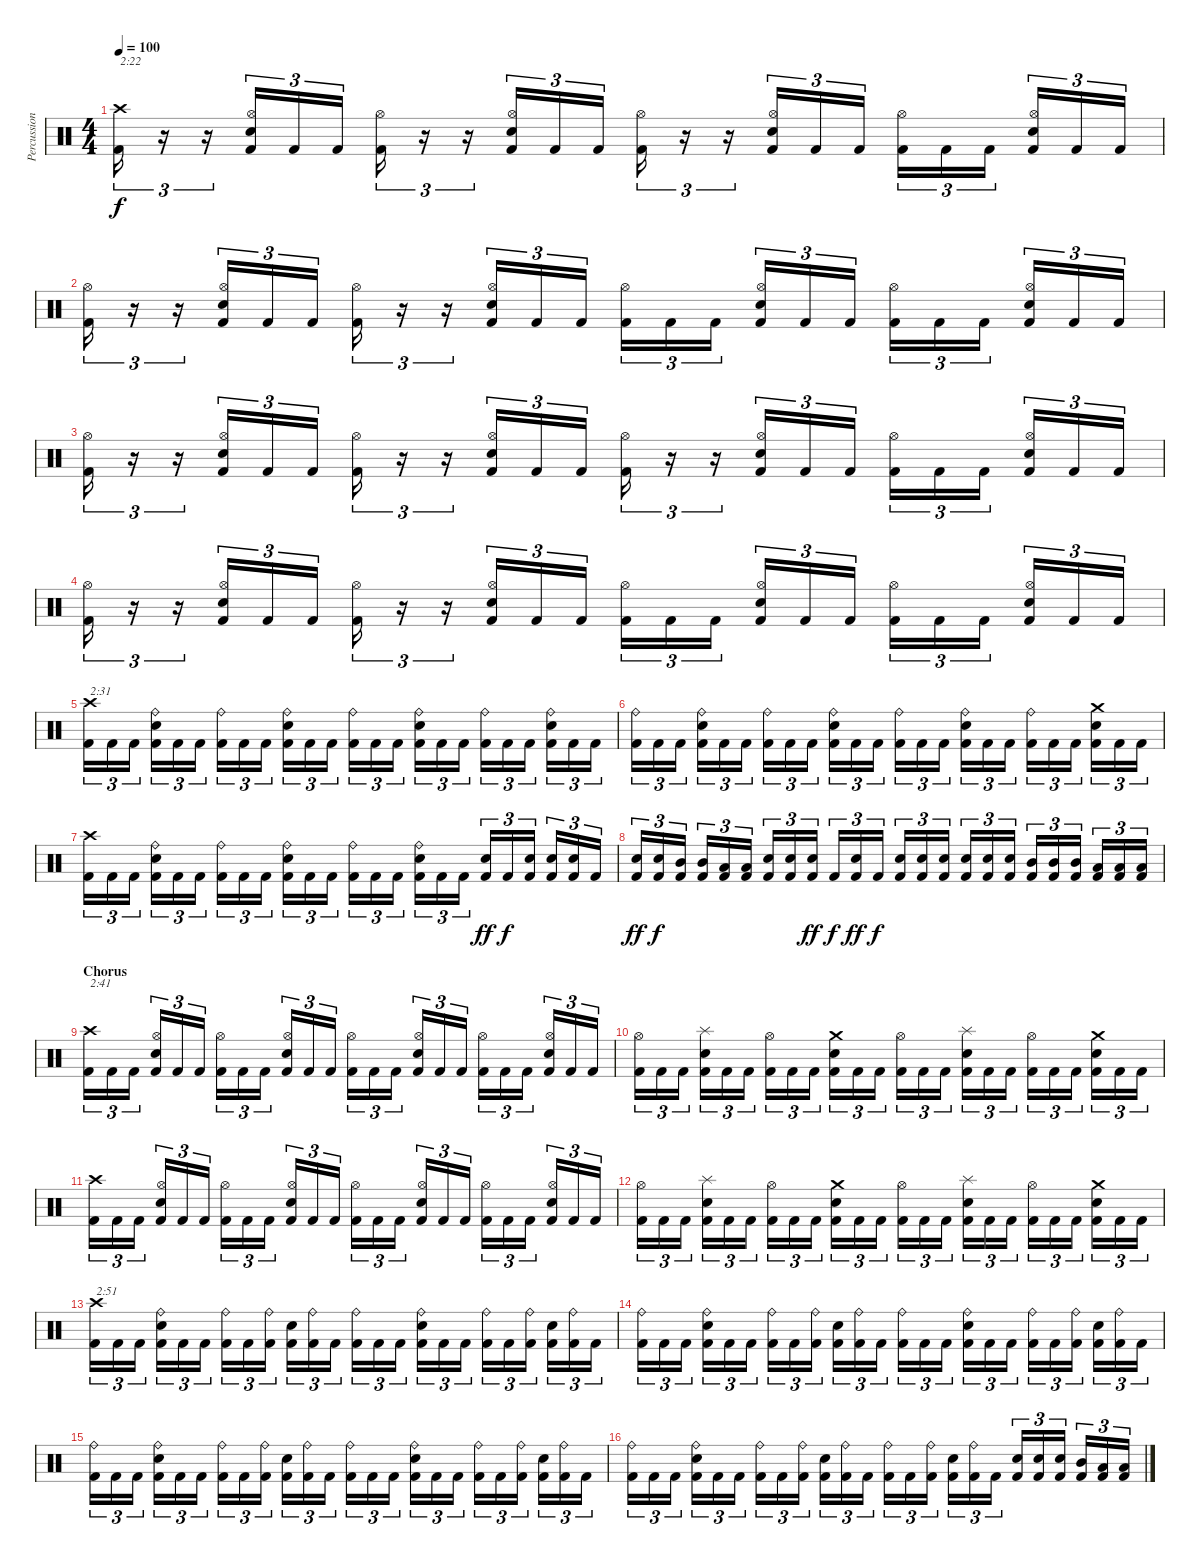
\track ("Percussion" "Percussion") {instrument percussion}
\staff {score}
\articulation defaults
\ts (4 4)
\tempo 100
\clef neutral
\ks c
("Crash high (hit)" "Kick (hit) 2").16{tu (3 2) txt "2:22" dy f} r.16{tu (3 2)} r.16{tu (3 2)} ("Hi-Hat (open)" "Snare (hit) 2" "Kick (hit) 2").16{tu (3 2)} "Kick (hit) 2".16{tu (3 2)} "Kick (hit) 2".16{tu (3 2)} ("Hi-Hat (open)" "Kick (hit) 2").16{tu (3 2)} r.16{tu (3 2)} r.16{tu (3 2)} ("Hi-Hat (open)" "Snare (hit) 2" "Kick (hit) 2").16{tu (3 2)} "Kick (hit) 2".16{tu (3 2)} "Kick (hit) 2".16{tu (3 2)} ("Hi-Hat (open)" "Kick (hit) 2").16{tu (3 2)} r.16{tu (3 2)} r.16{tu (3 2)} ("Hi-Hat (open)" "Snare (hit) 2" "Kick (hit) 2").16{tu (3 2)} "Kick (hit) 2".16{tu (3 2)} "Kick (hit) 2".16{tu (3 2)} ("Hi-Hat (open)" "Kick (hit) 2").16{tu (3 2)} "Kick (hit) 2".16{tu (3 2)} "Kick (hit) 2".16{tu (3 2)} ("Hi-Hat (open)" "Snare (hit) 2" "Kick (hit) 2").16{tu (3 2)} "Kick (hit) 2".16{tu (3 2)} "Kick (hit) 2".16{tu (3 2)} |
("Hi-Hat (open)" "Kick (hit) 2").16{tu (3 2)} r.16{tu (3 2)} r.16{tu (3 2)} ("Hi-Hat (open)" "Snare (hit) 2" "Kick (hit) 2").16{tu (3 2)} "Kick (hit) 2".16{tu (3 2)} "Kick (hit) 2".16{tu (3 2)} ("Hi-Hat (open)" "Kick (hit) 2").16{tu (3 2)} r.16{tu (3 2)} r.16{tu (3 2)} ("Hi-Hat (open)" "Snare (hit) 2" "Kick (hit) 2").16{tu (3 2)} "Kick (hit) 2".16{tu (3 2)} "Kick (hit) 2".16{tu (3 2)} ("Hi-Hat (open)" "Kick (hit) 2").16{tu (3 2)} "Kick (hit) 2".16{tu (3 2)} "Kick (hit) 2".16{tu (3 2)} ("Hi-Hat (open)" "Snare (hit) 2" "Kick (hit) 2").16{tu (3 2)} "Kick (hit) 2".16{tu (3 2)} "Kick (hit) 2".16{tu (3 2)} ("Hi-Hat (open)" "Kick (hit) 2").16{tu (3 2)} "Kick (hit) 2".16{tu (3 2)} "Kick (hit) 2".16{tu (3 2)} ("Hi-Hat (open)" "Snare (hit) 2" "Kick (hit) 2").16{tu (3 2)} "Kick (hit) 2".16{tu (3 2)} "Kick (hit) 2".16{tu (3 2)} |
("Hi-Hat (open)" "Kick (hit) 2").16{tu (3 2)} r.16{tu (3 2)} r.16{tu (3 2)} ("Hi-Hat (open)" "Snare (hit) 2" "Kick (hit) 2").16{tu (3 2)} "Kick (hit) 2".16{tu (3 2)} "Kick (hit) 2".16{tu (3 2)} ("Hi-Hat (open)" "Kick (hit) 2").16{tu (3 2)} r.16{tu (3 2)} r.16{tu (3 2)} ("Hi-Hat (open)" "Snare (hit) 2" "Kick (hit) 2").16{tu (3 2)} "Kick (hit) 2".16{tu (3 2)} "Kick (hit) 2".16{tu (3 2)} ("Hi-Hat (open)" "Kick (hit) 2").16{tu (3 2)} r.16{tu (3 2)} r.16{tu (3 2)} ("Hi-Hat (open)" "Snare (hit) 2" "Kick (hit) 2").16{tu (3 2)} "Kick (hit) 2".16{tu (3 2)} "Kick (hit) 2".16{tu (3 2)} ("Hi-Hat (open)" "Kick (hit) 2").16{tu (3 2)} "Kick (hit) 2".16{tu (3 2)} "Kick (hit) 2".16{tu (3 2)} ("Hi-Hat (open)" "Snare (hit) 2" "Kick (hit) 2").16{tu (3 2)} "Kick (hit) 2".16{tu (3 2)} "Kick (hit) 2".16{tu (3 2)} |
("Hi-Hat (open)" "Kick (hit) 2").16{tu (3 2)} r.16{tu (3 2)} r.16{tu (3 2)} ("Hi-Hat (open)" "Snare (hit) 2" "Kick (hit) 2").16{tu (3 2)} "Kick (hit) 2".16{tu (3 2)} "Kick (hit) 2".16{tu (3 2)} ("Hi-Hat (open)" "Kick (hit) 2").16{tu (3 2)} r.16{tu (3 2)} r.16{tu (3 2)} ("Hi-Hat (open)" "Snare (hit) 2" "Kick (hit) 2").16{tu (3 2)} "Kick (hit) 2".16{tu (3 2)} "Kick (hit) 2".16{tu (3 2)} ("Hi-Hat (open)" "Kick (hit) 2").16{tu (3 2)} "Kick (hit) 2".16{tu (3 2)} "Kick (hit) 2".16{tu (3 2)} ("Hi-Hat (open)" "Snare (hit) 2" "Kick (hit) 2").16{tu (3 2)} "Kick (hit) 2".16{tu (3 2)} "Kick (hit) 2".16{tu (3 2)} ("Hi-Hat (open)" "Kick (hit) 2").16{tu (3 2)} "Kick (hit) 2".16{tu (3 2)} "Kick (hit) 2".16{tu (3 2)} ("Hi-Hat (open)" "Snare (hit) 2" "Kick (hit) 2").16{tu (3 2)} "Kick (hit) 2".16{tu (3 2)} "Kick (hit) 2".16{tu (3 2)} |
("Crash high (hit)" "Kick (hit) 2").16{tu (3 2) txt "2:31"} "Kick (hit) 2".16{tu (3 2)} "Kick (hit) 2".16{tu (3 2)} ("Ride (bell)" "Snare (hit) 2" "Kick (hit) 2").16{tu (3 2)} "Kick (hit) 2".16{tu (3 2)} "Kick (hit) 2".16{tu (3 2)} ("Ride (bell)" "Kick (hit) 2").16{tu (3 2)} "Kick (hit) 2".16{tu (3 2)} "Kick (hit) 2".16{tu (3 2)} ("Ride (bell)" "Snare (hit) 2" "Kick (hit) 2").16{tu (3 2)} "Kick (hit) 2".16{tu (3 2)} "Kick (hit) 2".16{tu (3 2)} ("Ride (bell)" "Kick (hit) 2").16{tu (3 2)} "Kick (hit) 2".16{tu (3 2)} "Kick (hit) 2".16{tu (3 2)} ("Ride (bell)" "Snare (hit) 2" "Kick (hit) 2").16{tu (3 2)} "Kick (hit) 2".16{tu (3 2)} "Kick (hit) 2".16{tu (3 2)} ("Ride (bell)" "Kick (hit) 2").16{tu (3 2)} "Kick (hit) 2".16{tu (3 2)} "Kick (hit) 2".16{tu (3 2)} ("Ride (bell)" "Snare (hit) 2" "Kick (hit) 2").16{tu (3 2)} "Kick (hit) 2".16{tu (3 2)} "Kick (hit) 2".16{tu (3 2)} |
("Ride (bell)" "Kick (hit) 2").16{tu (3 2)} "Kick (hit) 2".16{tu (3 2)} "Kick (hit) 2".16{tu (3 2)} ("Ride (bell)" "Snare (hit) 2" "Kick (hit) 2").16{tu (3 2)} "Kick (hit) 2".16{tu (3 2)} "Kick (hit) 2".16{tu (3 2)} ("Ride (bell)" "Kick (hit) 2").16{tu (3 2)} "Kick (hit) 2".16{tu (3 2)} "Kick (hit) 2".16{tu (3 2)} ("Ride (bell)" "Snare (hit) 2" "Kick (hit) 2").16{tu (3 2)} "Kick (hit) 2".16{tu (3 2)} "Kick (hit) 2".16{tu (3 2)} ("Ride (bell)" "Kick (hit) 2").16{tu (3 2)} "Kick (hit) 2".16{tu (3 2)} "Kick (hit) 2".16{tu (3 2)} ("Ride (bell)" "Snare (hit) 2" "Kick (hit) 2").16{tu (3 2)} "Kick (hit) 2".16{tu (3 2)} "Kick (hit) 2".16{tu (3 2)} ("Ride (bell)" "Kick (hit) 2").16{tu (3 2)} "Kick (hit) 2".16{tu (3 2)} "Kick (hit) 2".16{tu (3 2)} ("Crash medium (hit)" "Snare (hit) 2" "Kick (hit) 2").16{tu (3 2)} "Kick (hit) 2".16{tu (3 2)} "Kick (hit) 2".16{tu (3 2)} |
("Crash high (hit)" "Kick (hit) 2").16{tu (3 2)} "Kick (hit) 2".16{tu (3 2)} "Kick (hit) 2".16{tu (3 2)} ("Ride (bell)" "Snare (hit) 2" "Kick (hit) 2").16{tu (3 2)} "Kick (hit) 2".16{tu (3 2)} "Kick (hit) 2".16{tu (3 2)} ("Ride (bell)" "Kick (hit) 2").16{tu (3 2)} "Kick (hit) 2".16{tu (3 2)} "Kick (hit) 2".16{tu (3 2)} ("Ride (bell)" "Snare (hit) 2" "Kick (hit) 2").16{tu (3 2)} "Kick (hit) 2".16{tu (3 2)} "Kick (hit) 2".16{tu (3 2)} ("Ride (bell)" "Kick (hit) 2").16{tu (3 2)} "Kick (hit) 2".16{tu (3 2)} "Kick (hit) 2".16{tu (3 2)} ("Ride (bell)" "Snare (hit) 2" "Kick (hit) 2").16{tu (3 2)} "Kick (hit) 2".16{tu (3 2)} "Kick (hit) 2".16{tu (3 2)} ("Snare (hit) 2" "Kick (hit) 2").16{tu (3 2) dy ff} "Kick (hit) 2".16{tu (3 2) dy f} ("Snare (hit) 2" "Kick (hit) 2").16{tu (3 2)} ("Snare (hit) 2" "Kick (hit) 2").16{tu (3 2)} ("Snare (hit) 2" "Kick (hit) 2").16{tu (3 2)} "Kick (hit) 2".16{tu (3 2)} |
("Snare (hit) 2" "Kick (hit) 2").16{tu (3 2) dy ff} ("Snare (hit) 2" "Kick (hit) 2").16{tu (3 2) dy f} ("Mid Tom (hit)" "Kick (hit) 2").16{tu (3 2)} ("Mid Tom (hit)" "Kick (hit) 2").16{tu (3 2)} ("Low Tom (hit)" "Kick (hit) 2").16{tu (3 2)} ("Low Tom (hit)" "Kick (hit) 2").16{tu (3 2)} ("Snare (hit) 2" "Kick (hit) 2").16{tu (3 2)} ("Snare (hit) 2" "Kick (hit) 2").16{tu (3 2)} ("Snare (hit) 2" "Kick (hit) 2").16{tu (3 2) dy ff} "Kick (hit) 2".16{tu (3 2) dy f} ("Snare (hit) 2" "Kick (hit) 2").16{tu (3 2) dy ff} "Kick (hit) 2".16{tu (3 2) dy f} ("Snare (hit) 2" "Kick (hit) 2").16{tu (3 2)} ("Snare (hit) 2" "Kick (hit) 2").16{tu (3 2)} ("Snare (hit) 2" "Kick (hit) 2").16{tu (3 2)} ("Snare (hit) 2" "Kick (hit) 2").16{tu (3 2)} ("Snare (hit) 2" "Kick (hit) 2").16{tu (3 2)} ("Snare (hit) 2" "Kick (hit) 2").16{tu (3 2)} ("Mid Tom (hit)" "Kick (hit) 2").16{tu (3 2)} ("Mid Tom (hit)" "Kick (hit) 2").16{tu (3 2)} ("Mid Tom (hit)" "Kick (hit) 2").16{tu (3 2)} ("Low Tom (hit)" "Kick (hit) 2").16{tu (3 2)} ("Low Tom (hit)" "Kick (hit) 2").16{tu (3 2)} ("Low Tom (hit)" "Kick (hit) 2").16{tu (3 2)} |
\section ("" "Chorus")
("Crash high (hit)" "Kick (hit) 2").16{tu (3 2) txt "2:41"} "Kick (hit) 2".16{tu (3 2)} "Kick (hit) 2".16{tu (3 2)} ("Hi-Hat (open)" "Snare (hit) 2" "Kick (hit) 2").16{tu (3 2)} "Kick (hit) 2".16{tu (3 2)} "Kick (hit) 2".16{tu (3 2)} ("Hi-Hat (open)" "Kick (hit) 2").16{tu (3 2)} "Kick (hit) 2".16{tu (3 2)} "Kick (hit) 2".16{tu (3 2)} ("Hi-Hat (open)" "Snare (hit) 2" "Kick (hit) 2").16{tu (3 2)} "Kick (hit) 2".16{tu (3 2)} "Kick (hit) 2".16{tu (3 2)} ("Hi-Hat (open)" "Kick (hit) 2").16{tu (3 2)} "Kick (hit) 2".16{tu (3 2)} "Kick (hit) 2".16{tu (3 2)} ("Hi-Hat (open)" "Snare (hit) 2" "Kick (hit) 2").16{tu (3 2)} "Kick (hit) 2".16{tu (3 2)} "Kick (hit) 2".16{tu (3 2)} ("Hi-Hat (open)" "Kick (hit) 2").16{tu (3 2)} "Kick (hit) 2".16{tu (3 2)} "Kick (hit) 2".16{tu (3 2)} ("Hi-Hat (open)" "Snare (hit) 2" "Kick (hit) 2").16{tu (3 2)} "Kick (hit) 2".16{tu (3 2)} "Kick (hit) 2".16{tu (3 2)} |
("Hi-Hat (open)" "Kick (hit) 2").16{tu (3 2)} "Kick (hit) 2".16{tu (3 2)} "Kick (hit) 2".16{tu (3 2)} ("Splash (hit)" "Snare (hit) 2" "Kick (hit) 2").16{tu (3 2)} "Kick (hit) 2".16{tu (3 2)} "Kick (hit) 2".16{tu (3 2)} ("Hi-Hat (open)" "Kick (hit) 2").16{tu (3 2)} "Kick (hit) 2".16{tu (3 2)} "Kick (hit) 2".16{tu (3 2)} ("Crash medium (hit)" "Snare (hit) 2" "Kick (hit) 2").16{tu (3 2)} "Kick (hit) 2".16{tu (3 2)} "Kick (hit) 2".16{tu (3 2)} ("Hi-Hat (open)" "Kick (hit) 2").16{tu (3 2)} "Kick (hit) 2".16{tu (3 2)} "Kick (hit) 2".16{tu (3 2)} ("Splash (hit)" "Snare (hit) 2" "Kick (hit) 2").16{tu (3 2)} "Kick (hit) 2".16{tu (3 2)} "Kick (hit) 2".16{tu (3 2)} ("Hi-Hat (open)" "Kick (hit) 2").16{tu (3 2)} "Kick (hit) 2".16{tu (3 2)} "Kick (hit) 2".16{tu (3 2)} ("Crash medium (hit)" "Snare (hit) 2" "Kick (hit) 2").16{tu (3 2)} "Kick (hit) 2".16{tu (3 2)} "Kick (hit) 2".16{tu (3 2)} |
("Crash high (hit)" "Kick (hit) 2").16{tu (3 2)} "Kick (hit) 2".16{tu (3 2)} "Kick (hit) 2".16{tu (3 2)} ("Hi-Hat (open)" "Snare (hit) 2" "Kick (hit) 2").16{tu (3 2)} "Kick (hit) 2".16{tu (3 2)} "Kick (hit) 2".16{tu (3 2)} ("Hi-Hat (open)" "Kick (hit) 2").16{tu (3 2)} "Kick (hit) 2".16{tu (3 2)} "Kick (hit) 2".16{tu (3 2)} ("Hi-Hat (open)" "Snare (hit) 2" "Kick (hit) 2").16{tu (3 2)} "Kick (hit) 2".16{tu (3 2)} "Kick (hit) 2".16{tu (3 2)} ("Hi-Hat (open)" "Kick (hit) 2").16{tu (3 2)} "Kick (hit) 2".16{tu (3 2)} "Kick (hit) 2".16{tu (3 2)} ("Hi-Hat (open)" "Snare (hit) 2" "Kick (hit) 2").16{tu (3 2)} "Kick (hit) 2".16{tu (3 2)} "Kick (hit) 2".16{tu (3 2)} ("Hi-Hat (open)" "Kick (hit) 2").16{tu (3 2)} "Kick (hit) 2".16{tu (3 2)} "Kick (hit) 2".16{tu (3 2)} ("Hi-Hat (open)" "Snare (hit) 2" "Kick (hit) 2").16{tu (3 2)} "Kick (hit) 2".16{tu (3 2)} "Kick (hit) 2".16{tu (3 2)} |
("Hi-Hat (open)" "Kick (hit) 2").16{tu (3 2)} "Kick (hit) 2".16{tu (3 2)} "Kick (hit) 2".16{tu (3 2)} ("Splash (hit)" "Snare (hit) 2" "Kick (hit) 2").16{tu (3 2)} "Kick (hit) 2".16{tu (3 2)} "Kick (hit) 2".16{tu (3 2)} ("Hi-Hat (open)" "Kick (hit) 2").16{tu (3 2)} "Kick (hit) 2".16{tu (3 2)} "Kick (hit) 2".16{tu (3 2)} ("Crash medium (hit)" "Snare (hit) 2" "Kick (hit) 2").16{tu (3 2)} "Kick (hit) 2".16{tu (3 2)} "Kick (hit) 2".16{tu (3 2)} ("Hi-Hat (open)" "Kick (hit) 2").16{tu (3 2)} "Kick (hit) 2".16{tu (3 2)} "Kick (hit) 2".16{tu (3 2)} ("Splash (hit)" "Snare (hit) 2" "Kick (hit) 2").16{tu (3 2)} "Kick (hit) 2".16{tu (3 2)} "Kick (hit) 2".16{tu (3 2)} ("Hi-Hat (open)" "Kick (hit) 2").16{tu (3 2)} "Kick (hit) 2".16{tu (3 2)} "Kick (hit) 2".16{tu (3 2)} ("Crash medium (hit)" "Snare (hit) 2" "Kick (hit) 2").16{tu (3 2)} "Kick (hit) 2".16{tu (3 2)} "Kick (hit) 2".16{tu (3 2)} |
("Crash high (hit)" "Kick (hit) 2").16{tu (3 2) txt "2:51"} "Kick (hit) 2".16{tu (3 2)} "Kick (hit) 2".16{tu (3 2)} ("Ride (bell)" "Snare (hit) 2" "Kick (hit) 2").16{tu (3 2)} "Kick (hit) 2".16{tu (3 2)} "Kick (hit) 2".16{tu (3 2)} ("Ride (bell)" "Kick (hit) 2").16{tu (3 2)} "Kick (hit) 2".16{tu (3 2)} ("Ride (bell)" "Kick (hit) 2").16{tu (3 2)} ("Snare (hit) 2" "Kick (hit) 2").16{tu (3 2)} ("Ride (bell)" "Kick (hit) 2").16{tu (3 2)} "Kick (hit) 2".16{tu (3 2)} ("Ride (bell)" "Kick (hit) 2").16{tu (3 2)} "Kick (hit) 2".16{tu (3 2)} "Kick (hit) 2".16{tu (3 2)} ("Ride (bell)" "Snare (hit) 2" "Kick (hit) 2").16{tu (3 2)} "Kick (hit) 2".16{tu (3 2)} "Kick (hit) 2".16{tu (3 2)} ("Ride (bell)" "Kick (hit) 2").16{tu (3 2)} "Kick (hit) 2".16{tu (3 2)} ("Ride (bell)" "Kick (hit) 2").16{tu (3 2)} ("Snare (hit) 2" "Kick (hit) 2").16{tu (3 2)} ("Ride (bell)" "Kick (hit) 2").16{tu (3 2)} "Kick (hit) 2".16{tu (3 2)} |
("Ride (bell)" "Kick (hit) 2").16{tu (3 2)} "Kick (hit) 2".16{tu (3 2)} "Kick (hit) 2".16{tu (3 2)} ("Ride (bell)" "Snare (hit) 2" "Kick (hit) 2").16{tu (3 2)} "Kick (hit) 2".16{tu (3 2)} "Kick (hit) 2".16{tu (3 2)} ("Ride (bell)" "Kick (hit) 2").16{tu (3 2)} "Kick (hit) 2".16{tu (3 2)} ("Ride (bell)" "Kick (hit) 2").16{tu (3 2)} ("Snare (hit) 2" "Kick (hit) 2").16{tu (3 2)} ("Ride (bell)" "Kick (hit) 2").16{tu (3 2)} "Kick (hit) 2".16{tu (3 2)} ("Ride (bell)" "Kick (hit) 2").16{tu (3 2)} "Kick (hit) 2".16{tu (3 2)} "Kick (hit) 2".16{tu (3 2)} ("Ride (bell)" "Snare (hit) 2" "Kick (hit) 2").16{tu (3 2)} "Kick (hit) 2".16{tu (3 2)} "Kick (hit) 2".16{tu (3 2)} ("Ride (bell)" "Kick (hit) 2").16{tu (3 2)} "Kick (hit) 2".16{tu (3 2)} ("Ride (bell)" "Kick (hit) 2").16{tu (3 2)} ("Snare (hit) 2" "Kick (hit) 2").16{tu (3 2)} ("Ride (bell)" "Kick (hit) 2").16{tu (3 2)} "Kick (hit) 2".16{tu (3 2)} |
("Ride (bell)" "Kick (hit) 2").16{tu (3 2)} "Kick (hit) 2".16{tu (3 2)} "Kick (hit) 2".16{tu (3 2)} ("Ride (bell)" "Snare (hit) 2" "Kick (hit) 2").16{tu (3 2)} "Kick (hit) 2".16{tu (3 2)} "Kick (hit) 2".16{tu (3 2)} ("Ride (bell)" "Kick (hit) 2").16{tu (3 2)} "Kick (hit) 2".16{tu (3 2)} ("Ride (bell)" "Kick (hit) 2").16{tu (3 2)} ("Snare (hit) 2" "Kick (hit) 2").16{tu (3 2)} ("Ride (bell)" "Kick (hit) 2").16{tu (3 2)} "Kick (hit) 2".16{tu (3 2)} ("Ride (bell)" "Kick (hit) 2").16{tu (3 2)} "Kick (hit) 2".16{tu (3 2)} "Kick (hit) 2".16{tu (3 2)} ("Ride (bell)" "Snare (hit) 2" "Kick (hit) 2").16{tu (3 2)} "Kick (hit) 2".16{tu (3 2)} "Kick (hit) 2".16{tu (3 2)} ("Ride (bell)" "Kick (hit) 2").16{tu (3 2)} "Kick (hit) 2".16{tu (3 2)} ("Ride (bell)" "Kick (hit) 2").16{tu (3 2)} ("Snare (hit) 2" "Kick (hit) 2").16{tu (3 2)} ("Ride (bell)" "Kick (hit) 2").16{tu (3 2)} "Kick (hit) 2".16{tu (3 2)} |
("Ride (bell)" "Kick (hit) 2").16{tu (3 2)} "Kick (hit) 2".16{tu (3 2)} "Kick (hit) 2".16{tu (3 2)} ("Ride (bell)" "Snare (hit) 2" "Kick (hit) 2").16{tu (3 2)} "Kick (hit) 2".16{tu (3 2)} "Kick (hit) 2".16{tu (3 2)} ("Ride (bell)" "Kick (hit) 2").16{tu (3 2)} "Kick (hit) 2".16{tu (3 2)} ("Ride (bell)" "Kick (hit) 2").16{tu (3 2)} ("Snare (hit) 2" "Kick (hit) 2").16{tu (3 2)} ("Ride (bell)" "Kick (hit) 2").16{tu (3 2)} "Kick (hit) 2".16{tu (3 2)} ("Ride (bell)" "Kick (hit) 2").16{tu (3 2)} "Kick (hit) 2".16{tu (3 2)} ("Ride (bell)" "Kick (hit) 2").16{tu (3 2)} ("Snare (hit) 2" "Kick (hit) 2").16{tu (3 2)} ("Ride (bell)" "Kick (hit) 2").16{tu (3 2)} "Kick (hit) 2".16{tu (3 2)} ("Snare (hit) 2" "Kick (hit) 2").16{tu (3 2)} ("Snare (hit) 2" "Kick (hit) 2").16{tu (3 2)} ("Snare (hit) 2" "Kick (hit) 2").16{tu (3 2)} ("Mid Tom (hit)" "Kick (hit) 2").16{tu (3 2)} ("Low Tom (hit)" "Kick (hit) 2").16{tu (3 2)} ("Low Tom (hit)" "Kick (hit) 2").16{tu (3 2)}
